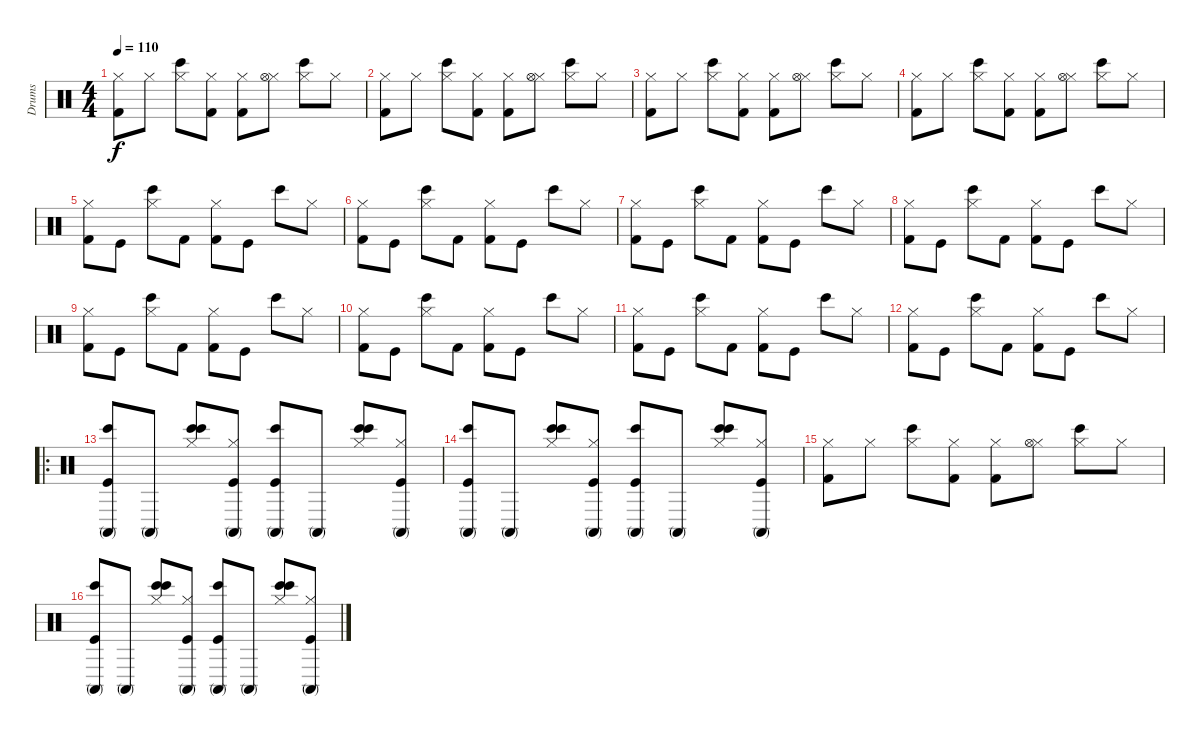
\track ("Drums" "Drums") {instrument percussion}
\staff {score}
\articulation defaults
\ts (4 4)
\tempo 110
\clef neutral
\ks c
("Kick (hit) 2" "Hi-Hat (closed)").8{dy f} "Hi-Hat (closed)".8 ("Bongo High (hit)" "Hi-Hat (closed)").8 ("Kick (hit) 2" "Hi-Hat (closed)").8 ("Kick (hit) 2" "Hi-Hat (closed)").8 ("Hi-Hat (closed)" "Hi-Hat (open)").8 ("Bongo High (hit)" "Hi-Hat (closed)").8 "Hi-Hat (closed)".8 |
("Kick (hit) 2" "Hi-Hat (closed)").8 "Hi-Hat (closed)".8 ("Bongo High (hit)" "Hi-Hat (closed)").8 ("Kick (hit) 2" "Hi-Hat (closed)").8 ("Kick (hit) 2" "Hi-Hat (closed)").8 ("Hi-Hat (closed)" "Hi-Hat (open)").8 ("Bongo High (hit)" "Hi-Hat (closed)").8 "Hi-Hat (closed)".8 |
("Kick (hit) 2" "Hi-Hat (closed)").8 "Hi-Hat (closed)".8 ("Bongo High (hit)" "Hi-Hat (closed)").8 ("Kick (hit) 2" "Hi-Hat (closed)").8 ("Kick (hit) 2" "Hi-Hat (closed)").8 ("Hi-Hat (closed)" "Hi-Hat (open)").8 ("Bongo High (hit)" "Hi-Hat (closed)").8 "Hi-Hat (closed)".8 |
("Kick (hit) 2" "Hi-Hat (closed)").8 "Hi-Hat (closed)".8 ("Bongo High (hit)" "Hi-Hat (closed)").8 ("Kick (hit) 2" "Hi-Hat (closed)").8 ("Kick (hit) 2" "Hi-Hat (closed)").8 ("Hi-Hat (closed)" "Hi-Hat (open)").8 ("Bongo High (hit)" "Hi-Hat (closed)").8 "Hi-Hat (closed)".8 |
("Kick (hit) 2" "Hi-Hat (closed)").8 "Kick (hit)".8 ("Bongo High (hit)" "Hi-Hat (closed)").8 "Kick (hit) 2".8 ("Kick (hit) 2" "Hi-Hat (closed)").8 "Kick (hit)".8 "Bongo High (hit)".8 "Hi-Hat (closed)".8 |
("Kick (hit) 2" "Hi-Hat (closed)").8 "Kick (hit)".8 ("Bongo High (hit)" "Hi-Hat (closed)").8 "Kick (hit) 2".8 ("Kick (hit) 2" "Hi-Hat (closed)").8 "Kick (hit)".8 "Bongo High (hit)".8 "Hi-Hat (closed)".8 |
("Kick (hit) 2" "Hi-Hat (closed)").8 "Kick (hit)".8 ("Bongo High (hit)" "Hi-Hat (closed)").8 "Kick (hit) 2".8 ("Kick (hit) 2" "Hi-Hat (closed)").8 "Kick (hit)".8 "Bongo High (hit)".8 "Hi-Hat (closed)".8 |
("Kick (hit) 2" "Hi-Hat (closed)").8 "Kick (hit)".8 ("Bongo High (hit)" "Hi-Hat (closed)").8 "Kick (hit) 2".8 ("Kick (hit) 2" "Hi-Hat (closed)").8 "Kick (hit)".8 "Bongo High (hit)".8 "Hi-Hat (closed)".8 |
("Kick (hit) 2" "Hi-Hat (closed)").8 "Kick (hit)".8 ("Bongo High (hit)" "Hi-Hat (closed)").8 "Kick (hit) 2".8 ("Kick (hit) 2" "Hi-Hat (closed)").8 "Kick (hit)".8 "Bongo High (hit)".8 "Hi-Hat (closed)".8 |
("Kick (hit) 2" "Hi-Hat (closed)").8 "Kick (hit)".8 ("Bongo High (hit)" "Hi-Hat (closed)").8 "Kick (hit) 2".8 ("Kick (hit) 2" "Hi-Hat (closed)").8 "Kick (hit)".8 "Bongo High (hit)".8 "Hi-Hat (closed)".8 |
("Kick (hit) 2" "Hi-Hat (closed)").8 "Kick (hit)".8 ("Bongo High (hit)" "Hi-Hat (closed)").8 "Kick (hit) 2".8 ("Kick (hit) 2" "Hi-Hat (closed)").8 "Kick (hit)".8 "Bongo High (hit)".8 "Hi-Hat (closed)".8 |
("Kick (hit) 2" "Hi-Hat (closed)").8 "Kick (hit)".8 ("Bongo High (hit)" "Hi-Hat (closed)").8 "Kick (hit) 2".8 ("Kick (hit) 2" "Hi-Hat (closed)").8 "Kick (hit)".8 "Bongo High (hit)".8 "Hi-Hat (closed)".8 |
\ro
("Kick (hit)" "Conga high (mute)" "Bongo High (hit)").8 "Conga high (mute)".8 ("Hi-Hat (closed)" "Bongo High (hit)" "Bongo High (hit)").8 ("Kick (hit)" "Conga high (mute)" "Hi-Hat (closed)").8 ("Kick (hit)" "Conga high (mute)" "Bongo High (hit)").8 "Conga high (mute)".8 ("Bongo High (hit)" "Hi-Hat (closed)" "Bongo High (hit)").8 ("Kick (hit)" "Conga high (mute)" "Hi-Hat (closed)").8 |
("Kick (hit)" "Conga high (mute)" "Bongo High (hit)").8 "Conga high (mute)".8 ("Hi-Hat (closed)" "Bongo High (hit)" "Bongo High (hit)").8 ("Kick (hit)" "Conga high (mute)" "Hi-Hat (closed)").8 ("Kick (hit)" "Conga high (mute)" "Bongo High (hit)").8 "Conga high (mute)".8 ("Bongo High (hit)" "Hi-Hat (closed)" "Bongo High (hit)").8 ("Kick (hit)" "Conga high (mute)" "Hi-Hat (closed)").8 |
("Kick (hit) 2" "Hi-Hat (closed)").8 "Hi-Hat (closed)".8 ("Bongo High (hit)" "Hi-Hat (closed)").8 ("Kick (hit) 2" "Hi-Hat (closed)").8 ("Kick (hit) 2" "Hi-Hat (closed)").8 ("Hi-Hat (closed)" "Hi-Hat (open)").8 ("Bongo High (hit)" "Hi-Hat (closed)").8 "Hi-Hat (closed)".8 |
("Kick (hit)" "Conga high (mute)" "Bongo High (hit)").8 "Conga high (mute)".8 ("Hi-Hat (closed)" "Bongo High (hit)" "Bongo High (hit)").8 ("Kick (hit)" "Conga high (mute)" "Hi-Hat (closed)").8 ("Kick (hit)" "Conga high (mute)" "Bongo High (hit)").8 "Conga high (mute)".8 ("Bongo High (hit)" "Hi-Hat (closed)" "Bongo High (hit)").8 ("Kick (hit)" "Conga high (mute)" "Hi-Hat (closed)").8
